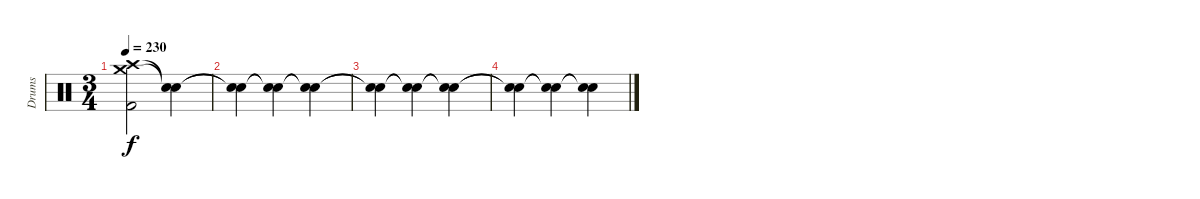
\track ("Drums" "Drums") {instrument percussion}
\staff {score}
\articulation defaults
\ts (3 4)
\tempo 230
\clef neutral
\ks c
("Crash medium (hit)" "Crash high (hit)" "Kick (hit) 2").2{dy f} ("Snare (hit)"{t} "Snare (hit)"{t}).4 |
("Snare (hit)"{t} "Snare (hit)"{t}).4 ("Snare (hit)"{t} "Snare (hit)"{t}).4 ("Snare (hit)"{t} "Snare (hit)"{t}).4 |
("Snare (hit)"{t} "Snare (hit)"{t}).4 ("Snare (hit)"{t} "Snare (hit)"{t}).4 ("Snare (hit)"{t} "Snare (hit)"{t}).4 |
("Snare (hit)"{t} "Snare (hit)"{t}).4 ("Snare (hit)"{t} "Snare (hit)"{t}).4 ("Snare (hit)"{t} "Snare (hit)"{t}).4
